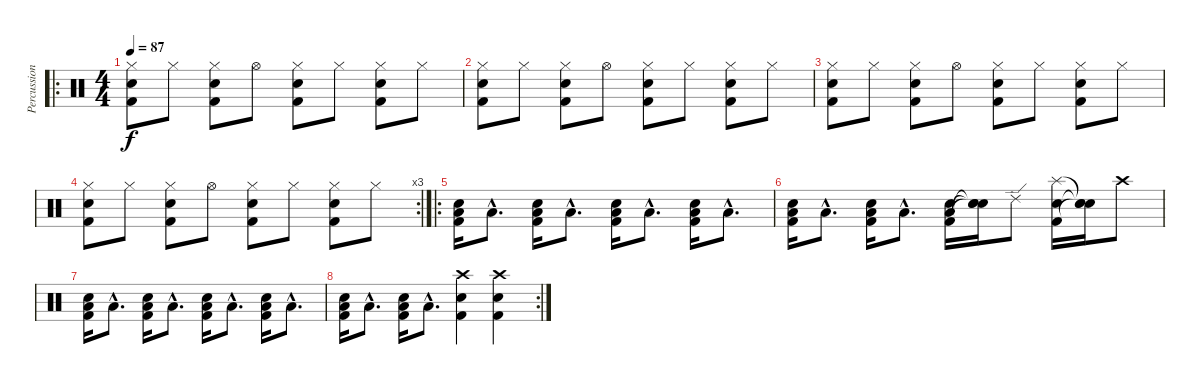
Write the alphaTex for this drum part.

\track ("Percussion" "Percussion") {instrument percussion}
\staff {score}
\articulation defaults
\ro
\ts (4 4)
\tempo 87
\clef neutral
\ks c
("Hi-Hat (closed)" "Snare (hit) 2" "Kick (hit) 2").8{dy f} "Hi-Hat (closed)".8 ("Hi-Hat (closed)" "Snare (hit) 2" "Kick (hit) 2").8 "Hi-Hat (open)".8 ("Hi-Hat (closed)" "Snare (hit) 2" "Kick (hit) 2").8 "Hi-Hat (closed)".8 ("Hi-Hat (closed)" "Snare (hit) 2" "Kick (hit) 2").8 "Hi-Hat (closed)".8 |
("Hi-Hat (closed)" "Snare (hit) 2" "Kick (hit) 2").8 "Hi-Hat (closed)".8 ("Hi-Hat (closed)" "Snare (hit) 2" "Kick (hit) 2").8 "Hi-Hat (open)".8 ("Hi-Hat (closed)" "Snare (hit) 2" "Kick (hit) 2").8 "Hi-Hat (closed)".8 ("Hi-Hat (closed)" "Snare (hit) 2" "Kick (hit) 2").8 "Hi-Hat (closed)".8 |
("Hi-Hat (closed)" "Snare (hit) 2" "Kick (hit) 2").8 "Hi-Hat (closed)".8 ("Hi-Hat (closed)" "Snare (hit) 2" "Kick (hit) 2").8 "Hi-Hat (open)".8 ("Hi-Hat (closed)" "Snare (hit) 2" "Kick (hit) 2").8 "Hi-Hat (closed)".8 ("Hi-Hat (closed)" "Snare (hit) 2" "Kick (hit) 2").8 "Hi-Hat (closed)".8 |
\rc 3
("Hi-Hat (closed)" "Snare (hit) 2" "Kick (hit) 2").8 "Hi-Hat (closed)".8 ("Hi-Hat (closed)" "Snare (hit) 2" "Kick (hit) 2").8 "Hi-Hat (open)".8 ("Hi-Hat (closed)" "Snare (hit) 2" "Kick (hit) 2").8 "Hi-Hat (closed)".8 ("Hi-Hat (closed)" "Snare (hit) 2" "Kick (hit) 2").8 "Hi-Hat (closed)".8 |
\ro
("Low Floor Tom (hit)" "Snare (hit) 2" "Kick (hit) 2").16 "Low Floor Tom (hit)"{hac}.8{d} ("Low Floor Tom (hit)" "Snare (hit) 2" "Kick (hit) 2").16 "Low Floor Tom (hit)"{hac}.8{d} ("Low Floor Tom (hit)" "Snare (hit) 2" "Kick (hit) 2").16 "Low Floor Tom (hit)"{hac}.8{d} ("Low Floor Tom (hit)" "Snare (hit) 2" "Kick (hit) 2").16 "Low Floor Tom (hit)"{hac}.8{d} |
("Low Floor Tom (hit)" "Snare (hit) 2" "Kick (hit) 2").16 "Low Floor Tom (hit)"{hac}.8{d} ("Low Floor Tom (hit)" "Snare (hit) 2" "Kick (hit) 2").16 "Low Floor Tom (hit)"{hac}.8{d} ("Low Floor Tom (hit)" "Snare (hit) 2" "Kick (hit) 2").16 ("Snare (hit)"{t} "Snare (hit)"{t} "Snare (hit)"{t}).16 "Ride (edge) 2".8 ("Splash (hit)" "Snare (hit) 2" "Kick (hit) 2").16 ("Snare (hit)"{t} "Snare (hit)"{t} "Snare (hit)"{t}).16 "Crash high (hit)".8 |
("Low Floor Tom (hit)" "Snare (hit) 2" "Kick (hit) 2").16 "Low Floor Tom (hit)"{hac}.8{d} ("Low Floor Tom (hit)" "Snare (hit) 2" "Kick (hit) 2").16 "Low Floor Tom (hit)"{hac}.8{d} ("Low Floor Tom (hit)" "Snare (hit) 2" "Kick (hit) 2").16 "Low Floor Tom (hit)"{hac}.8{d} ("Low Floor Tom (hit)" "Snare (hit) 2" "Kick (hit) 2").16 "Low Floor Tom (hit)"{hac}.8{d} |
\rc 2
("Low Floor Tom (hit)" "Snare (hit) 2" "Kick (hit) 2").16 "Low Floor Tom (hit)"{hac}.8{d} ("Low Floor Tom (hit)" "Snare (hit) 2" "Kick (hit) 2").16 "Low Floor Tom (hit)"{hac}.8{d} ("Crash high (hit)" "Snare (hit) 2" "Kick (hit) 2").4 ("Crash high (hit)" "Snare (hit) 2" "Kick (hit) 2").4
